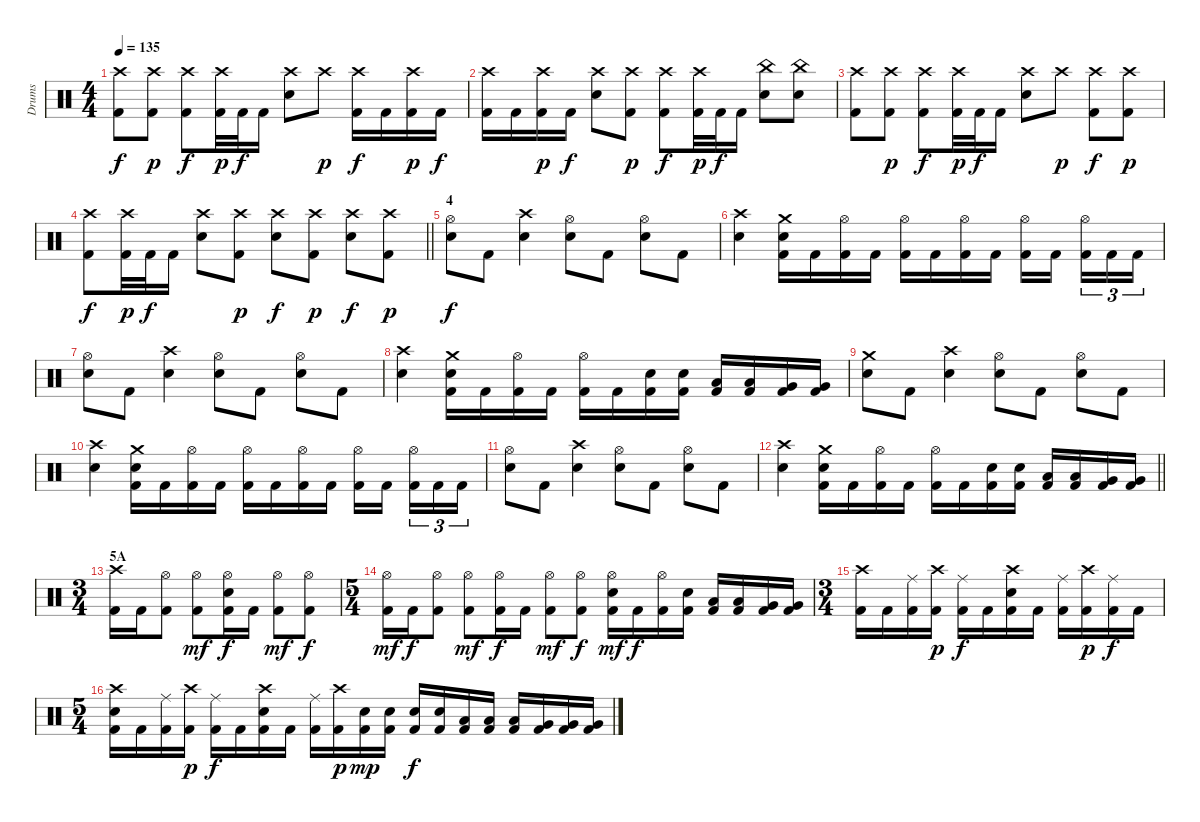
\track ("Drums" "Drums") {instrument percussion}
\staff {score}
\articulation defaults
\ts (4 4)
\tempo 135
\clef neutral
\ks c
("Crash high (hit)" "Kick (hit) 2").8{dy f} ("Crash high (hit)" "Kick (hit) 2").8{dy p} ("Crash high (hit)" "Kick (hit) 2").8{dy f} ("Crash high (hit)" "Kick (hit) 2").32{dy p} "Kick (hit) 2".32{dy f} "Kick (hit) 2".16 ("Crash high (hit)" "Electric Snare (hit)").8 "Crash high (hit)".8{dy p} ("Crash high (hit)" "Kick (hit) 2").16{dy f} "Kick (hit) 2".16 ("Crash high (hit)" "Kick (hit) 2").16{dy p} "Kick (hit) 2".16{dy f} |
("Crash high (hit)" "Kick (hit) 2").16 "Kick (hit) 2".16 ("Crash high (hit)" "Kick (hit) 2").16{dy p} "Kick (hit) 2".16{dy f} ("Crash high (hit)" "Electric Snare (hit)").8 ("Crash high (hit)" "Kick (hit) 2").8{dy p} ("Crash high (hit)" "Kick (hit) 2").8{dy f} ("Crash high (hit)" "Kick (hit) 2").32{dy p} "Kick (hit) 2".32{dy f} "Kick (hit) 2".16 ("China (hit)" "Electric Snare (hit)").8 ("China (hit)" "Electric Snare (hit)").8 |
("Crash high (hit)" "Kick (hit) 2").8 ("Crash high (hit)" "Kick (hit) 2").8{dy p} ("Crash high (hit)" "Kick (hit) 2").8{dy f} ("Crash high (hit)" "Kick (hit) 2").32{dy p} "Kick (hit) 2".32{dy f} "Kick (hit) 2".16 ("Crash high (hit)" "Electric Snare (hit)").8 "Crash high (hit)".8{dy p} ("Crash high (hit)" "Kick (hit) 2").8{dy f} ("Crash high (hit)" "Kick (hit) 2").8{dy p} |
\barLineRight lightlight
("Crash high (hit)" "Kick (hit) 2").8{dy f} ("Crash high (hit)" "Kick (hit) 2").32{dy p} "Kick (hit) 2".32{dy f} "Kick (hit) 2".16 ("Crash high (hit)" "Electric Snare (hit)").8 ("Crash high (hit)" "Kick (hit) 2").8{dy p} ("Crash high (hit)" "Electric Snare (hit)").8{dy f} ("Crash high (hit)" "Kick (hit) 2").8{dy p} ("Crash high (hit)" "Electric Snare (hit)").8{dy f} ("Crash high (hit)" "Kick (hit) 2").8{dy p} |
\section ("" "4")
("Hi-Hat (open)" "Electric Snare (hit)").8{dy f} "Kick (hit) 2".8 ("Crash high (hit)" "Electric Snare (hit)").4 ("Hi-Hat (open)" "Electric Snare (hit)").8 "Kick (hit) 2".8 ("Hi-Hat (open)" "Electric Snare (hit)").8 "Kick (hit) 2".8 |
("Crash high (hit)" "Electric Snare (hit)").4 ("Crash medium (hit)" "Electric Snare (hit)" "Kick (hit) 2").16 "Kick (hit) 2".16 ("Hi-Hat (open)" "Kick (hit) 2").16 "Kick (hit) 2".16 ("Hi-Hat (open)" "Kick (hit) 2").16 "Kick (hit) 2".16 ("Hi-Hat (open)" "Kick (hit) 2").16 "Kick (hit) 2".16 ("Hi-Hat (open)" "Kick (hit) 2").16 "Kick (hit) 2".16{beam splitsecondary} ("Hi-Hat (open)" "Kick (hit) 2").16{tu (3 2)} "Kick (hit) 2".16{tu (3 2)} "Kick (hit) 2".16{tu (3 2)} |
("Hi-Hat (open)" "Electric Snare (hit)").8 "Kick (hit) 2".8 ("Crash high (hit)" "Electric Snare (hit)").4 ("Hi-Hat (open)" "Electric Snare (hit)").8 "Kick (hit) 2".8 ("Hi-Hat (open)" "Electric Snare (hit)").8 "Kick (hit) 2".8 |
("Crash high (hit)" "Electric Snare (hit)").4 ("Crash medium (hit)" "Electric Snare (hit)" "Kick (hit) 2").16 "Kick (hit) 2".16 ("Hi-Hat (open)" "Kick (hit) 2").16 "Kick (hit) 2".16 ("Hi-Hat (open)" "Kick (hit) 2").16 "Kick (hit) 2".16 ("Electric Snare (hit)" "Kick (hit) 2").16 ("Electric Snare (hit)" "Kick (hit) 2").16 ("Low Tom (hit)" "Kick (hit) 2").16 ("Low Tom (hit)" "Kick (hit) 2").16 ("Very Low Tom (hit)" "Kick (hit) 2").16 ("Very Low Tom (hit)" "Kick (hit) 2").16 |
("Crash medium (hit)" "Electric Snare (hit)").8 "Kick (hit) 2".8 ("Crash high (hit)" "Electric Snare (hit)").4 ("Hi-Hat (open)" "Electric Snare (hit)").8 "Kick (hit) 2".8 ("Hi-Hat (open)" "Electric Snare (hit)").8 "Kick (hit) 2".8 |
("Crash high (hit)" "Electric Snare (hit)").4 ("Crash medium (hit)" "Electric Snare (hit)" "Kick (hit) 2").16 "Kick (hit) 2".16 ("Hi-Hat (open)" "Kick (hit) 2").16 "Kick (hit) 2".16 ("Hi-Hat (open)" "Kick (hit) 2").16 "Kick (hit) 2".16 ("Hi-Hat (open)" "Kick (hit) 2").16 "Kick (hit) 2".16 ("Hi-Hat (open)" "Kick (hit) 2").16 "Kick (hit) 2".16{beam splitsecondary} ("Hi-Hat (open)" "Kick (hit) 2").16{tu (3 2)} "Kick (hit) 2".16{tu (3 2)} "Kick (hit) 2".16{tu (3 2)} |
("Hi-Hat (open)" "Electric Snare (hit)").8 "Kick (hit) 2".8 ("Crash high (hit)" "Electric Snare (hit)").4 ("Hi-Hat (open)" "Electric Snare (hit)").8 "Kick (hit) 2".8 ("Hi-Hat (open)" "Electric Snare (hit)").8 "Kick (hit) 2".8 |
\barLineRight lightlight
("Crash high (hit)" "Electric Snare (hit)").4 ("Crash medium (hit)" "Electric Snare (hit)" "Kick (hit) 2").16 "Kick (hit) 2".16 ("Hi-Hat (open)" "Kick (hit) 2").16 "Kick (hit) 2".16 ("Hi-Hat (open)" "Kick (hit) 2").16 "Kick (hit) 2".16 ("Electric Snare (hit)" "Kick (hit) 2").16 ("Electric Snare (hit)" "Kick (hit) 2").16 ("Low Tom (hit)" "Kick (hit) 2").16 ("Low Tom (hit)" "Kick (hit) 2").16 ("Very Low Tom (hit)" "Kick (hit) 2").16 ("Very Low Tom (hit)" "Kick (hit) 2").16 |
\ts (3 4)
\section ("" "5A")
("Crash high (hit)" "Kick (hit) 2").16 "Kick (hit) 2".16 ("Hi-Hat (open)" "Kick (hit) 2").8 ("Hi-Hat (open)" "Kick (hit) 2").8{dy mf} ("Hi-Hat (open)" "Electric Snare (hit)" "Kick (hit) 2").16{dy f} "Kick (hit) 2".16 ("Hi-Hat (open)" "Kick (hit) 2").8{dy mf} ("Hi-Hat (open)" "Kick (hit) 2").8{dy f} |
\ts (5 4)
("Hi-Hat (open)" "Kick (hit) 2").16{dy mf} "Kick (hit) 2".16{dy f} ("Hi-Hat (open)" "Kick (hit) 2").8 ("Hi-Hat (open)" "Kick (hit) 2").8{dy mf} ("Hi-Hat (open)" "Kick (hit) 2").16{dy f} "Kick (hit) 2".16 ("Hi-Hat (open)" "Kick (hit) 2").8{dy mf} ("Hi-Hat (open)" "Kick (hit) 2").8{dy f} ("Hi-Hat (open)" "Electric Snare (hit)" "Kick (hit) 2").16{dy mf} "Kick (hit) 2".16{dy f} ("Hi-Hat (open)" "Kick (hit) 2").16 ("Electric Snare (hit)" "Kick (hit) 2").16 ("Low Tom (hit)" "Kick (hit) 2").16 ("Low Tom (hit)" "Kick (hit) 2").16 ("Very Low Tom (hit)" "Kick (hit) 2").16 ("Very Low Tom (hit)" "Kick (hit) 2").16 |
\ts (3 4)
("Crash high (hit)" "Kick (hit) 2").16 "Kick (hit) 2".16 ("Ride (middle)" "Kick (hit) 2").16 ("Crash high (hit)" "Kick (hit) 2").16{dy p} ("Ride (middle)" "Kick (hit) 2").16{dy f} "Kick (hit) 2".16 ("Crash high (hit)" "Electric Snare (hit)" "Kick (hit) 2").16 "Kick (hit) 2".16 ("Ride (middle)" "Kick (hit) 2").16 ("Crash high (hit)" "Kick (hit) 2").16{dy p} ("Ride (middle)" "Kick (hit) 2").16{dy f} "Kick (hit) 2".16 |
\ts (5 4)
("Crash high (hit)" "Electric Snare (hit)" "Kick (hit) 2").16 "Kick (hit) 2".16 ("Ride (middle)" "Kick (hit) 2").16 ("Crash high (hit)" "Kick (hit) 2").16{dy p} ("Ride (middle)" "Kick (hit) 2").16{dy f} "Kick (hit) 2".16 ("Crash high (hit)" "Electric Snare (hit)" "Kick (hit) 2").16 "Kick (hit) 2".16 ("Ride (middle)" "Kick (hit) 2").16 ("Crash high (hit)" "Kick (hit) 2").16{dy p} ("Electric Snare (hit)" "Kick (hit) 2").16{dy mp} ("Electric Snare (hit)" "Kick (hit) 2").16 ("Electric Snare (hit)" "Kick (hit) 2").16{dy f} ("Electric Snare (hit)" "Kick (hit) 2").16 ("Low Tom (hit)" "Kick (hit) 2").16 ("Low Tom (hit)" "Kick (hit) 2").16 ("Low Tom (hit)" "Kick (hit) 2").16 ("Very Low Tom (hit)" "Kick (hit) 2").16 ("Very Low Tom (hit)" "Kick (hit) 2").16 ("Very Low Tom (hit)" "Kick (hit) 2").16
